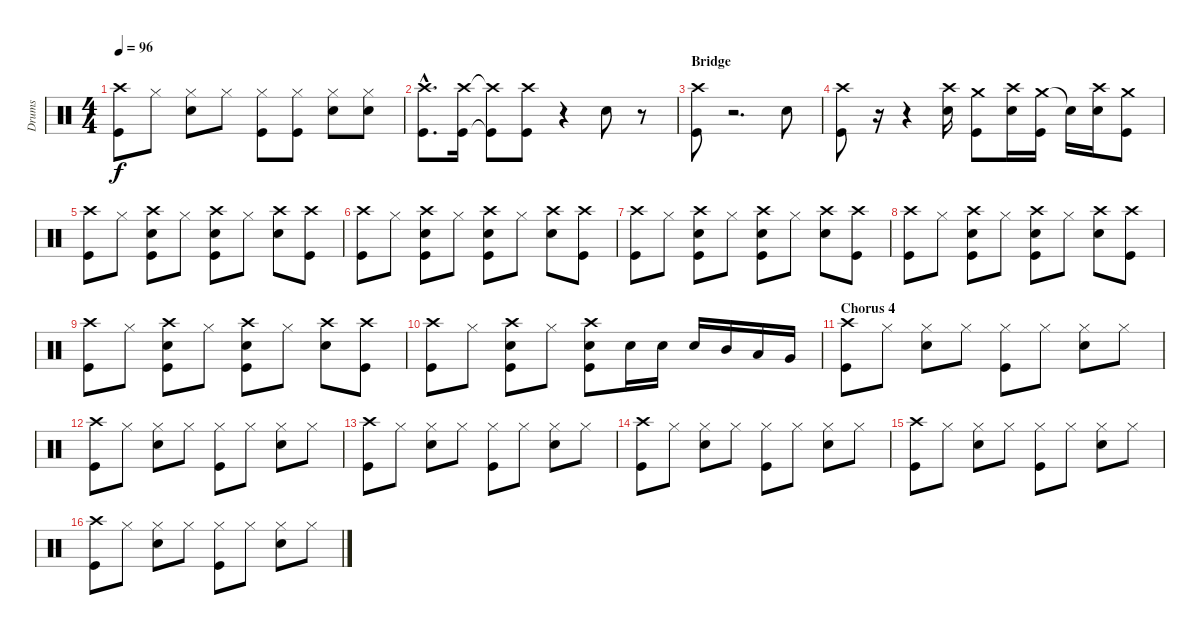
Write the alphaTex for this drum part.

\track ("Drums" "Drums") {instrument percussion}
\staff {score}
\articulation defaults
\ts (4 4)
\tempo 96
\clef neutral
\ks c
("Crash high (hit)" "Kick (hit)").8{dy f} "Hi-Hat (closed)".8 ("Hi-Hat (closed)" "Electric Snare (hit)").8 "Hi-Hat (closed)".8 ("Hi-Hat (closed)" "Kick (hit)").8 ("Hi-Hat (closed)" "Kick (hit)").8 ("Hi-Hat (closed)" "Electric Snare (hit)").8 ("Hi-Hat (closed)" "Electric Snare (hit)").8 |
("Crash high (hit)"{hac} "Kick (hit)"{hac}).8{d} ("Crash high (hit)" "Kick (hit)").16 ("Crash high (hit)"{t} "Kick (hit)"{t}).8 ("Crash high (hit)" "Kick (hit)").8 r.4 "Electric Snare (hit)".8 r.8 |
\section ("" "Bridge")
("Crash high (hit)" "Kick (hit)").8 r.2{d} "Electric Snare (hit)".8 |
("Crash high (hit)" "Kick (hit)").8 r.16 r.4 ("Crash high (hit)" "Electric Snare (hit)").16 ("Crash medium (hit)" "Kick (hit)").8 ("Crash high (hit)" "Electric Snare (hit)").16 ("Crash medium (hit)" "Kick (hit)").16 "Snare (hit)"{t}.16 ("Crash high (hit)" "Electric Snare (hit)").16 ("Crash medium (hit)" "Kick (hit)").8 |
("Crash high (hit)" "Kick (hit)").8 "Hi-Hat (closed)".8 ("Crash high (hit)" "Electric Snare (hit)" "Kick (hit)").8 "Hi-Hat (closed)".8 ("Crash high (hit)" "Electric Snare (hit)" "Kick (hit)").8 "Hi-Hat (closed)".8 ("Crash high (hit)" "Electric Snare (hit)").8 ("Crash high (hit)" "Kick (hit)").8 |
("Crash high (hit)" "Kick (hit)").8 "Hi-Hat (closed)".8 ("Crash high (hit)" "Electric Snare (hit)" "Kick (hit)").8 "Hi-Hat (closed)".8 ("Crash high (hit)" "Electric Snare (hit)" "Kick (hit)").8 "Hi-Hat (closed)".8 ("Crash high (hit)" "Electric Snare (hit)").8 ("Crash high (hit)" "Kick (hit)").8 |
("Crash high (hit)" "Kick (hit)").8 "Hi-Hat (closed)".8 ("Crash high (hit)" "Electric Snare (hit)" "Kick (hit)").8 "Hi-Hat (closed)".8 ("Crash high (hit)" "Electric Snare (hit)" "Kick (hit)").8 "Hi-Hat (closed)".8 ("Crash high (hit)" "Electric Snare (hit)").8 ("Crash high (hit)" "Kick (hit)").8 |
("Crash high (hit)" "Kick (hit)").8 "Hi-Hat (closed)".8 ("Crash high (hit)" "Electric Snare (hit)" "Kick (hit)").8 "Hi-Hat (closed)".8 ("Crash high (hit)" "Electric Snare (hit)" "Kick (hit)").8 "Hi-Hat (closed)".8 ("Crash high (hit)" "Electric Snare (hit)").8 ("Crash high (hit)" "Kick (hit)").8 |
("Crash high (hit)" "Kick (hit)").8 "Hi-Hat (closed)".8 ("Crash high (hit)" "Electric Snare (hit)" "Kick (hit)").8 "Hi-Hat (closed)".8 ("Crash high (hit)" "Electric Snare (hit)" "Kick (hit)").8 "Hi-Hat (closed)".8 ("Crash high (hit)" "Electric Snare (hit)").8 ("Crash high (hit)" "Kick (hit)").8 |
("Crash high (hit)" "Kick (hit)").8 "Hi-Hat (closed)".8 ("Crash high (hit)" "Electric Snare (hit)" "Kick (hit)").8 "Hi-Hat (closed)".8 ("Crash high (hit)" "Electric Snare (hit)" "Kick (hit)").8 "Electric Snare (hit)".16 "Electric Snare (hit)".16 "Electric Snare (hit)".16 "Mid Tom (hit)".16 "Low Tom (hit)".16 "Very Low Tom (hit)".16 |
\section ("" "Chorus 4")
("Crash high (hit)" "Kick (hit)").8 "Hi-Hat (closed)".8 ("Hi-Hat (closed)" "Electric Snare (hit)").8 "Hi-Hat (closed)".8 ("Hi-Hat (closed)" "Kick (hit)").8 "Hi-Hat (closed)".8 ("Hi-Hat (closed)" "Electric Snare (hit)").8 "Hi-Hat (closed)".8 |
("Crash high (hit)" "Kick (hit)").8 "Hi-Hat (closed)".8 ("Hi-Hat (closed)" "Electric Snare (hit)").8 "Hi-Hat (closed)".8 ("Hi-Hat (closed)" "Kick (hit)").8 "Hi-Hat (closed)".8 ("Hi-Hat (closed)" "Electric Snare (hit)").8 "Hi-Hat (closed)".8 |
("Crash high (hit)" "Kick (hit)").8 "Hi-Hat (closed)".8 ("Hi-Hat (closed)" "Electric Snare (hit)").8 "Hi-Hat (closed)".8 ("Hi-Hat (closed)" "Kick (hit)").8 "Hi-Hat (closed)".8 ("Hi-Hat (closed)" "Electric Snare (hit)").8 "Hi-Hat (closed)".8 |
("Crash high (hit)" "Kick (hit)").8 "Hi-Hat (closed)".8 ("Hi-Hat (closed)" "Electric Snare (hit)").8 "Hi-Hat (closed)".8 ("Hi-Hat (closed)" "Kick (hit)").8 "Hi-Hat (closed)".8 ("Hi-Hat (closed)" "Electric Snare (hit)").8 "Hi-Hat (closed)".8 |
("Crash high (hit)" "Kick (hit)").8 "Hi-Hat (closed)".8 ("Hi-Hat (closed)" "Electric Snare (hit)").8 "Hi-Hat (closed)".8 ("Hi-Hat (closed)" "Kick (hit)").8 "Hi-Hat (closed)".8 ("Hi-Hat (closed)" "Electric Snare (hit)").8 "Hi-Hat (closed)".8 |
("Crash high (hit)" "Kick (hit)").8 "Hi-Hat (closed)".8 ("Hi-Hat (closed)" "Electric Snare (hit)").8 "Hi-Hat (closed)".8 ("Hi-Hat (closed)" "Kick (hit)").8 "Hi-Hat (closed)".8 ("Hi-Hat (closed)" "Electric Snare (hit)").8 "Hi-Hat (closed)".8
